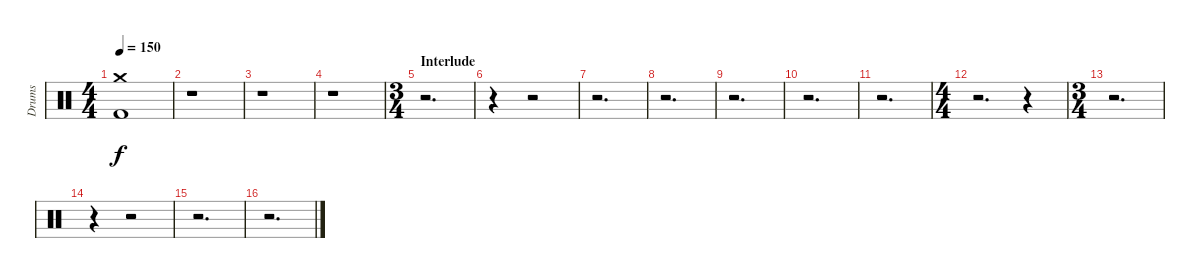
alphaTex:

\track ("Drums" "Drums") {instrument percussion}
\staff {score}
\articulation defaults
\ts (4 4)
\tempo 150
\clef neutral
\ks c
("Crash medium (hit)" "Kick (hit) 2").1{dy f} |
r.1 |
r.1 |
r.1 |
\ts (3 4)
\section ("" "Interlude")
r.2{d} |
r.4 r.2 |
r.2{d} |
r.2{d} |
r.2{d} |
r.2{d} |
r.2{d} |
\ts (4 4)
r.2{d} r.4 |
\ts (3 4)
r.2{d} |
r.4 r.2 |
r.2{d} |
r.2{d}
